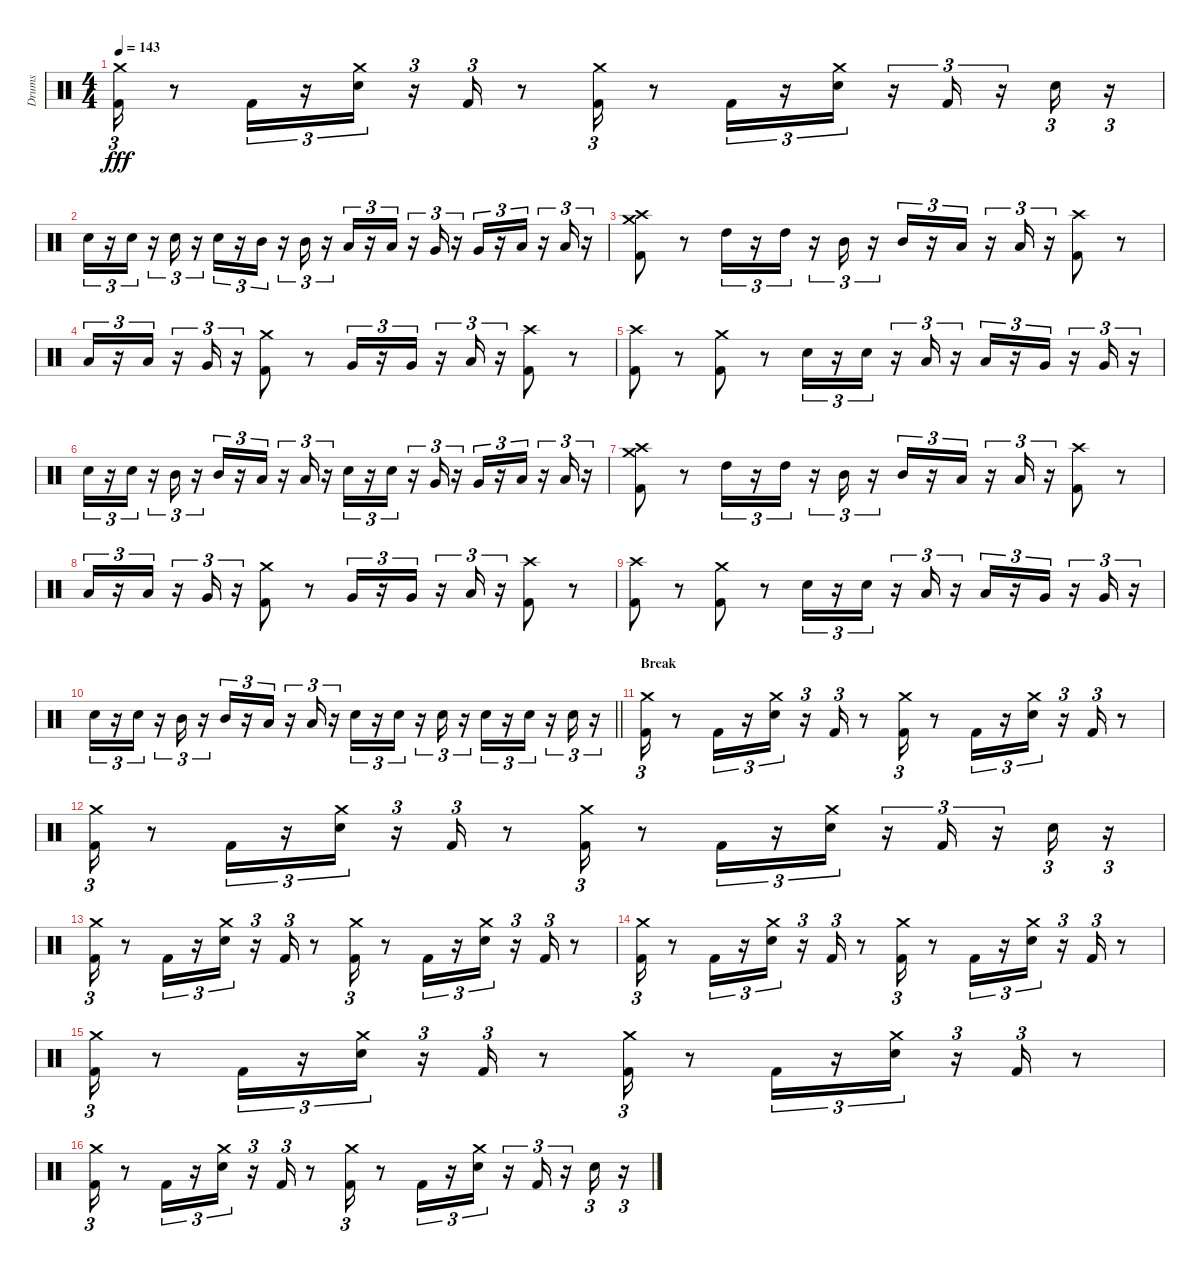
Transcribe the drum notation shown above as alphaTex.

\track ("Drums" "Drums") {instrument percussion}
\staff {score}
\articulation defaults
\ts (4 4)
\tempo 143
\clef neutral
\ks c
("Crash medium (hit)" "Kick (hit) 2").16{tu (3 2) dy fff} r.8 "Kick (hit) 2".16{tu (3 2)} r.16{tu (3 2)} ("Crash medium (hit)" "Snare (hit) 2").16{tu (3 2)} r.16{tu (3 2)} "Kick (hit) 2".16{tu (3 2)} r.8 ("Crash medium (hit)" "Kick (hit) 2").16{tu (3 2)} r.8 "Kick (hit) 2".16{tu (3 2)} r.16{tu (3 2)} ("Crash medium (hit)" "Snare (hit) 2").16{tu (3 2)} r.16{tu (3 2)} "Kick (hit) 2".16{tu (3 2)} r.16{tu (3 2)} "Snare (hit) 2".16{tu (3 2)} r.16{tu (3 2)} |
"Snare (hit) 2".16{tu (3 2)} r.16{tu (3 2)} "Snare (hit) 2".16{tu (3 2)} r.16{tu (3 2)} "Snare (hit) 2".16{tu (3 2)} r.16{tu (3 2)} "Snare (hit) 2".16{tu (3 2)} r.16{tu (3 2)} "Mid Tom (hit)".16{tu (3 2)} r.16{tu (3 2)} "Mid Tom (hit)".16{tu (3 2)} r.16{tu (3 2)} "Low Tom (hit)".16{tu (3 2)} r.16{tu (3 2)} "Low Tom (hit)".16{tu (3 2)} r.16{tu (3 2)} "Very Low Tom (hit)".16{tu (3 2)} r.16{tu (3 2)} "Very Low Tom (hit)".16{tu (3 2)} r.16{tu (3 2)} "Low Floor Tom (hit)".16{tu (3 2)} r.16{tu (3 2)} "Low Floor Tom (hit)".16{tu (3 2)} r.16{tu (3 2)} |
("Crash medium (hit)" "Crash high (hit)" "Kick (hit) 2").8 r.8 "High Tom (hit)".16{tu (3 2)} r.16{tu (3 2)} "High Tom (hit)".16{tu (3 2)} r.16{tu (3 2)} "Mid Tom (hit)".16{tu (3 2)} r.16{tu (3 2)} "Mid Tom (hit)".16{tu (3 2)} r.16{tu (3 2)} "Low Tom (hit)".16{tu (3 2)} r.16{tu (3 2)} "Low Tom (hit)".16{tu (3 2)} r.16{tu (3 2)} ("Crash high (hit)" "Kick (hit) 2").8 r.8 |
"Low Tom (hit)".16{tu (3 2)} r.16{tu (3 2)} "Low Tom (hit)".16{tu (3 2)} r.16{tu (3 2)} "Very Low Tom (hit)".16{tu (3 2)} r.16{tu (3 2)} ("Crash medium (hit)" "Kick (hit) 2").8 r.8 "Very Low Tom (hit)".16{tu (3 2)} r.16{tu (3 2)} "Very Low Tom (hit)".16{tu (3 2)} r.16{tu (3 2)} "Low Floor Tom (hit)".16{tu (3 2)} r.16{tu (3 2)} ("Crash high (hit)" "Kick (hit) 2").8 r.8 |
("Crash high (hit)" "Kick (hit) 2").8 r.8 ("Crash medium (hit)" "Kick (hit) 2").8 r.8 "Snare (hit) 2".16{tu (3 2)} r.16{tu (3 2)} "Snare (hit) 2".16{tu (3 2)} r.16{tu (3 2)} "Low Tom (hit)".16{tu (3 2)} r.16{tu (3 2)} "Low Tom (hit)".16{tu (3 2)} r.16{tu (3 2)} "Very Low Tom (hit)".16{tu (3 2)} r.16{tu (3 2)} "Very Low Tom (hit)".16{tu (3 2)} r.16{tu (3 2)} |
"Snare (hit) 2".16{tu (3 2)} r.16{tu (3 2)} "Snare (hit) 2".16{tu (3 2)} r.16{tu (3 2)} "Mid Tom (hit)".16{tu (3 2)} r.16{tu (3 2)} "Mid Tom (hit)".16{tu (3 2)} r.16{tu (3 2)} "Low Tom (hit)".16{tu (3 2)} r.16{tu (3 2)} "Low Tom (hit)".16{tu (3 2)} r.16{tu (3 2)} "Snare (hit) 2".16{tu (3 2)} r.16{tu (3 2)} "Snare (hit) 2".16{tu (3 2)} r.16{tu (3 2)} "Very Low Tom (hit)".16{tu (3 2)} r.16{tu (3 2)} "Very Low Tom (hit)".16{tu (3 2)} r.16{tu (3 2)} "Low Floor Tom (hit)".16{tu (3 2)} r.16{tu (3 2)} "Low Floor Tom (hit)".16{tu (3 2)} r.16{tu (3 2)} |
("Crash medium (hit)" "Crash high (hit)" "Kick (hit) 2").8 r.8 "High Tom (hit)".16{tu (3 2)} r.16{tu (3 2)} "High Tom (hit)".16{tu (3 2)} r.16{tu (3 2)} "Mid Tom (hit)".16{tu (3 2)} r.16{tu (3 2)} "Mid Tom (hit)".16{tu (3 2)} r.16{tu (3 2)} "Low Tom (hit)".16{tu (3 2)} r.16{tu (3 2)} "Low Tom (hit)".16{tu (3 2)} r.16{tu (3 2)} ("Crash high (hit)" "Kick (hit) 2").8 r.8 |
"Low Tom (hit)".16{tu (3 2)} r.16{tu (3 2)} "Low Tom (hit)".16{tu (3 2)} r.16{tu (3 2)} "Very Low Tom (hit)".16{tu (3 2)} r.16{tu (3 2)} ("Crash medium (hit)" "Kick (hit) 2").8 r.8 "Very Low Tom (hit)".16{tu (3 2)} r.16{tu (3 2)} "Very Low Tom (hit)".16{tu (3 2)} r.16{tu (3 2)} "Low Floor Tom (hit)".16{tu (3 2)} r.16{tu (3 2)} ("Crash high (hit)" "Kick (hit) 2").8 r.8 |
("Crash high (hit)" "Kick (hit) 2").8 r.8 ("Crash medium (hit)" "Kick (hit) 2").8 r.8 "Snare (hit) 2".16{tu (3 2)} r.16{tu (3 2)} "Snare (hit) 2".16{tu (3 2)} r.16{tu (3 2)} "Low Tom (hit)".16{tu (3 2)} r.16{tu (3 2)} "Low Tom (hit)".16{tu (3 2)} r.16{tu (3 2)} "Very Low Tom (hit)".16{tu (3 2)} r.16{tu (3 2)} "Very Low Tom (hit)".16{tu (3 2)} r.16{tu (3 2)} |
\barLineRight lightlight "Snare (hit) 2".16{tu (3 2)}
r.16{tu (3 2)} "Snare (hit) 2".16{tu (3 2)} r.16{tu (3 2)} "Mid Tom (hit)".16{tu (3 2)} r.16{tu (3 2)} "Mid Tom (hit)".16{tu (3 2)} r.16{tu (3 2)} "Low Tom (hit)".16{tu (3 2)} r.16{tu (3 2)} "Low Tom (hit)".16{tu (3 2)} r.16{tu (3 2)} "Snare (hit) 2".16{tu (3 2)} r.16{tu (3 2)} "Snare (hit) 2".16{tu (3 2)} r.16{tu (3 2)} "Snare (hit) 2".16{tu (3 2)} r.16{tu (3 2)} "Snare (hit) 2".16{tu (3 2)} r.16{tu (3 2)} "Snare (hit) 2".16{tu (3 2)} r.16{tu (3 2)} "Snare (hit) 2".16{tu (3 2)} r.16{tu (3 2)} |
\section ("" "Break")
("Crash medium (hit)" "Kick (hit) 2").16{tu (3 2)} r.8 "Kick (hit) 2".16{tu (3 2)} r.16{tu (3 2)} ("Crash medium (hit)" "Snare (hit) 2").16{tu (3 2)} r.16{tu (3 2)} "Kick (hit) 2".16{tu (3 2)} r.8 ("Crash medium (hit)" "Kick (hit) 2").16{tu (3 2)} r.8 "Kick (hit) 2".16{tu (3 2)} r.16{tu (3 2)} ("Crash medium (hit)" "Snare (hit) 2").16{tu (3 2)} r.16{tu (3 2)} "Kick (hit) 2".16{tu (3 2)} r.8 |
("Crash medium (hit)" "Kick (hit) 2").16{tu (3 2)} r.8 "Kick (hit) 2".16{tu (3 2)} r.16{tu (3 2)} ("Crash medium (hit)" "Snare (hit) 2").16{tu (3 2)} r.16{tu (3 2)} "Kick (hit) 2".16{tu (3 2)} r.8 ("Crash medium (hit)" "Kick (hit) 2").16{tu (3 2)} r.8 "Kick (hit) 2".16{tu (3 2)} r.16{tu (3 2)} ("Crash medium (hit)" "Snare (hit) 2").16{tu (3 2)} r.16{tu (3 2)} "Kick (hit) 2".16{tu (3 2)} r.16{tu (3 2)} "Snare (hit) 2".16{tu (3 2)} r.16{tu (3 2)} |
("Crash medium (hit)" "Kick (hit) 2").16{tu (3 2)} r.8 "Kick (hit) 2".16{tu (3 2)} r.16{tu (3 2)} ("Crash medium (hit)" "Snare (hit) 2").16{tu (3 2)} r.16{tu (3 2)} "Kick (hit) 2".16{tu (3 2)} r.8 ("Crash medium (hit)" "Kick (hit) 2").16{tu (3 2)} r.8 "Kick (hit) 2".16{tu (3 2)} r.16{tu (3 2)} ("Crash medium (hit)" "Snare (hit) 2").16{tu (3 2)} r.16{tu (3 2)} "Kick (hit) 2".16{tu (3 2)} r.8 |
("Crash medium (hit)" "Kick (hit) 2").16{tu (3 2)} r.8 "Kick (hit) 2".16{tu (3 2)} r.16{tu (3 2)} ("Crash medium (hit)" "Snare (hit) 2").16{tu (3 2)} r.16{tu (3 2)} "Kick (hit) 2".16{tu (3 2)} r.8 ("Crash medium (hit)" "Kick (hit) 2").16{tu (3 2)} r.8 "Kick (hit) 2".16{tu (3 2)} r.16{tu (3 2)} ("Crash medium (hit)" "Snare (hit) 2").16{tu (3 2)} r.16{tu (3 2)} "Kick (hit) 2".16{tu (3 2)} r.8 |
("Crash medium (hit)" "Kick (hit) 2").16{tu (3 2)} r.8 "Kick (hit) 2".16{tu (3 2)} r.16{tu (3 2)} ("Crash medium (hit)" "Snare (hit) 2").16{tu (3 2)} r.16{tu (3 2)} "Kick (hit) 2".16{tu (3 2)} r.8 ("Crash medium (hit)" "Kick (hit) 2").16{tu (3 2)} r.8 "Kick (hit) 2".16{tu (3 2)} r.16{tu (3 2)} ("Crash medium (hit)" "Snare (hit) 2").16{tu (3 2)} r.16{tu (3 2)} "Kick (hit) 2".16{tu (3 2)} r.8 |
("Crash medium (hit)" "Kick (hit) 2").16{tu (3 2)} r.8 "Kick (hit) 2".16{tu (3 2)} r.16{tu (3 2)} ("Crash medium (hit)" "Snare (hit) 2").16{tu (3 2)} r.16{tu (3 2)} "Kick (hit) 2".16{tu (3 2)} r.8 ("Crash medium (hit)" "Kick (hit) 2").16{tu (3 2)} r.8 "Kick (hit) 2".16{tu (3 2)} r.16{tu (3 2)} ("Crash medium (hit)" "Snare (hit) 2").16{tu (3 2)} r.16{tu (3 2)} "Kick (hit) 2".16{tu (3 2)} r.16{tu (3 2)} "Snare (hit) 2".16{tu (3 2)} r.16{tu (3 2)}
